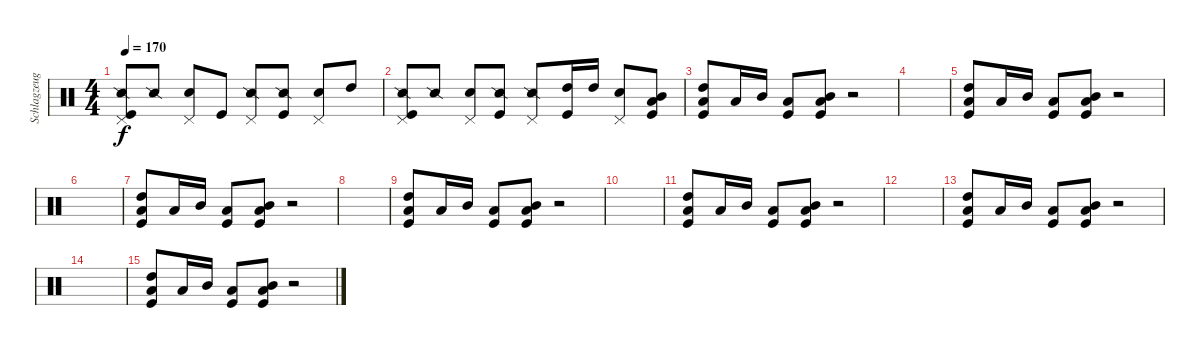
\track ("Schlagzeug" "Schlagzeug") {instrument percussion}
\staff {score}
\articulation defaults
\ts (4 4)
\tempo 170
\clef neutral
\ks c
("Snare (side stick) 2" "Pedal Hi-Hat (hit)" "Kick (hit)").8{dy f} "Snare (side stick) 2".8 ("Electric Snare (hit)" "Pedal Hi-Hat (hit)").8 "Kick (hit)".8 ("Snare (side stick) 2" "Pedal Hi-Hat (hit)").8 ("Snare (side stick) 2" "Kick (hit)").8 ("Electric Snare (hit)" "Pedal Hi-Hat (hit)").8 "High Tom (hit)".8 |
("Snare (side stick) 2" "Pedal Hi-Hat (hit)" "Kick (hit)").8 "Snare (side stick) 2".8 ("Electric Snare (hit)" "Pedal Hi-Hat (hit)").8 ("Snare (side stick) 2" "Kick (hit)").8 ("Snare (side stick) 2" "Pedal Hi-Hat (hit)").8 ("High Tom (hit)" "Kick (hit)").16 "High Tom (hit)".16 ("Electric Snare (hit)" "Pedal Hi-Hat (hit)").8 ("Mid Tom (hit)" "Low Tom (hit)" "Kick (hit)").8 |
("High Tom (hit)" "Low Tom (hit)" "Kick (hit)").8 "Low Tom (hit)".16 "Mid Tom (hit)".16 ("Low Tom (hit)" "Kick (hit)").8 ("Mid Tom (hit)" "Low Tom (hit)" "Kick (hit)").8 r.2 |
|
("High Tom (hit)" "Low Tom (hit)" "Kick (hit)").8 "Low Tom (hit)".16 "Mid Tom (hit)".16 ("Low Tom (hit)" "Kick (hit)").8 ("Mid Tom (hit)" "Low Tom (hit)" "Kick (hit)").8 r.2 |
|
("High Tom (hit)" "Low Tom (hit)" "Kick (hit)").8 "Low Tom (hit)".16 "Mid Tom (hit)".16 ("Low Tom (hit)" "Kick (hit)").8 ("Mid Tom (hit)" "Low Tom (hit)" "Kick (hit)").8 r.2 |
|
("High Tom (hit)" "Low Tom (hit)" "Kick (hit)").8 "Low Tom (hit)".16 "Mid Tom (hit)".16 ("Low Tom (hit)" "Kick (hit)").8 ("Mid Tom (hit)" "Low Tom (hit)" "Kick (hit)").8 r.2 |
|
("High Tom (hit)" "Low Tom (hit)" "Kick (hit)").8 "Low Tom (hit)".16 "Mid Tom (hit)".16 ("Low Tom (hit)" "Kick (hit)").8 ("Mid Tom (hit)" "Low Tom (hit)" "Kick (hit)").8 r.2 |
|
("High Tom (hit)" "Low Tom (hit)" "Kick (hit)").8 "Low Tom (hit)".16 "Mid Tom (hit)".16 ("Low Tom (hit)" "Kick (hit)").8 ("Mid Tom (hit)" "Low Tom (hit)" "Kick (hit)").8 r.2 |
|
("High Tom (hit)" "Low Tom (hit)" "Kick (hit)").8 "Low Tom (hit)".16 "Mid Tom (hit)".16 ("Low Tom (hit)" "Kick (hit)").8 ("Mid Tom (hit)" "Low Tom (hit)" "Kick (hit)").8 r.2
